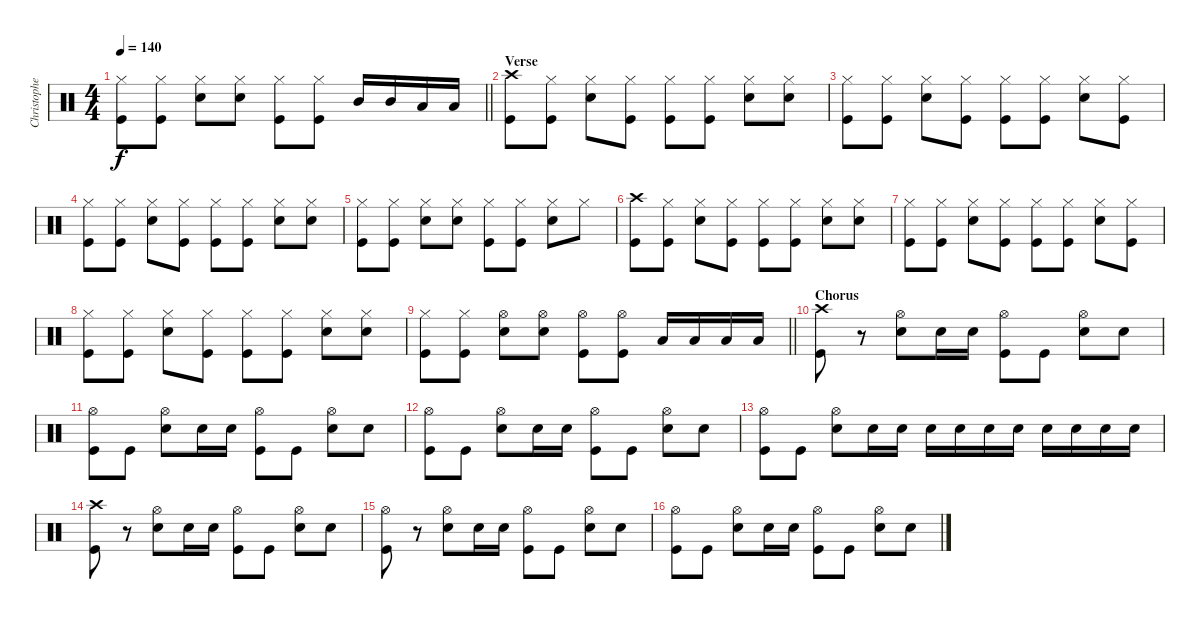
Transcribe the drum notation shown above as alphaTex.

\track ("Christopher - Drums" "Christophe") {instrument percussion}
\staff {score}
\articulation defaults
\ts (4 4)
\tempo 140
\clef neutral
\barLineRight lightlight
\ks c
("Hi-Hat (closed)" "Kick (hit)").8{dy f} ("Hi-Hat (closed)" "Kick (hit)").8 ("Hi-Hat (closed)" "Snare (hit) 2").8 ("Hi-Hat (closed)" "Snare (hit) 2").8 ("Hi-Hat (closed)" "Kick (hit)").8 ("Hi-Hat (closed)" "Kick (hit)").8 "Mid Tom (hit)".16 "Mid Tom (hit)".16 "Low Tom (hit)".16 "Low Tom (hit)".16 |
\section ("" "Verse")
("Crash high (hit)" "Kick (hit)").8 ("Hi-Hat (closed)" "Kick (hit)").8 ("Hi-Hat (closed)" "Snare (hit) 2").8 ("Hi-Hat (closed)" "Kick (hit)").8 ("Hi-Hat (closed)" "Kick (hit)").8 ("Hi-Hat (closed)" "Kick (hit)").8 ("Hi-Hat (closed)" "Snare (hit) 2").8 ("Hi-Hat (closed)" "Snare (hit) 2").8 |
("Hi-Hat (closed)" "Kick (hit)").8 ("Hi-Hat (closed)" "Kick (hit)").8 ("Hi-Hat (closed)" "Snare (hit) 2").8 ("Hi-Hat (closed)" "Kick (hit)").8 ("Hi-Hat (closed)" "Kick (hit)").8 ("Hi-Hat (closed)" "Kick (hit)").8 ("Hi-Hat (closed)" "Snare (hit) 2").8 ("Hi-Hat (closed)" "Kick (hit)").8 |
("Hi-Hat (closed)" "Kick (hit)").8 ("Hi-Hat (closed)" "Kick (hit)").8 ("Hi-Hat (closed)" "Snare (hit) 2").8 ("Hi-Hat (closed)" "Kick (hit)").8 ("Hi-Hat (closed)" "Kick (hit)").8 ("Hi-Hat (closed)" "Kick (hit)").8 ("Hi-Hat (closed)" "Snare (hit) 2").8 ("Hi-Hat (closed)" "Snare (hit) 2").8 |
("Hi-Hat (closed)" "Kick (hit)").8 ("Hi-Hat (closed)" "Kick (hit)").8 ("Hi-Hat (closed)" "Snare (hit) 2").8 ("Hi-Hat (closed)" "Snare (hit) 2").8 ("Hi-Hat (closed)" "Kick (hit)").8 ("Hi-Hat (closed)" "Kick (hit)").8 ("Hi-Hat (closed)" "Snare (hit) 2").8 "Hi-Hat (closed)".8 |
("Crash high (hit)" "Kick (hit)").8 ("Hi-Hat (closed)" "Kick (hit)").8 ("Hi-Hat (closed)" "Snare (hit) 2").8 ("Hi-Hat (closed)" "Kick (hit)").8 ("Hi-Hat (closed)" "Kick (hit)").8 ("Hi-Hat (closed)" "Kick (hit)").8 ("Hi-Hat (closed)" "Snare (hit) 2").8 ("Hi-Hat (closed)" "Snare (hit) 2").8 |
("Hi-Hat (closed)" "Kick (hit)").8 ("Hi-Hat (closed)" "Kick (hit)").8 ("Hi-Hat (closed)" "Snare (hit) 2").8 ("Hi-Hat (closed)" "Kick (hit)").8 ("Hi-Hat (closed)" "Kick (hit)").8 ("Hi-Hat (closed)" "Kick (hit)").8 ("Hi-Hat (closed)" "Snare (hit) 2").8 ("Hi-Hat (closed)" "Kick (hit)").8 |
("Hi-Hat (closed)" "Kick (hit)").8 ("Hi-Hat (closed)" "Kick (hit)").8 ("Hi-Hat (closed)" "Snare (hit) 2").8 ("Hi-Hat (closed)" "Kick (hit)").8 ("Hi-Hat (closed)" "Kick (hit)").8 ("Hi-Hat (closed)" "Kick (hit)").8 ("Hi-Hat (closed)" "Snare (hit) 2").8 ("Hi-Hat (closed)" "Snare (hit) 2").8 |
\barLineRight lightlight
("Hi-Hat (closed)" "Kick (hit)").8 ("Hi-Hat (closed)" "Kick (hit)").8 ("Hi-Hat (open)" "Snare (hit) 2").8 ("Hi-Hat (open)" "Snare (hit) 2").8 ("Hi-Hat (open)" "Kick (hit)").8 ("Hi-Hat (open)" "Kick (hit)").8 "Low Floor Tom (hit)".16 "Low Floor Tom (hit)".16 "Low Floor Tom (hit)".16 "Low Floor Tom (hit)".16 |
\section ("" "Chorus")
("Crash high (hit)" "Kick (hit)").8 r.8 ("Hi-Hat (open)" "Snare (hit) 2").8 "Snare (hit) 2".16 "Snare (hit) 2".16 ("Hi-Hat (open)" "Kick (hit)").8 "Kick (hit)".8 ("Hi-Hat (open)" "Snare (hit) 2").8 "Snare (hit) 2".8 |
("Hi-Hat (open)" "Kick (hit)").8 "Kick (hit)".8 ("Hi-Hat (open)" "Snare (hit) 2").8 "Snare (hit) 2".16 "Snare (hit) 2".16 ("Hi-Hat (open)" "Kick (hit)").8 "Kick (hit)".8 ("Hi-Hat (open)" "Snare (hit) 2").8 "Snare (hit) 2".8 |
("Hi-Hat (open)" "Kick (hit)").8 "Kick (hit)".8 ("Hi-Hat (open)" "Snare (hit) 2").8 "Snare (hit) 2".16 "Snare (hit) 2".16 ("Hi-Hat (open)" "Kick (hit)").8 "Kick (hit)".8 ("Hi-Hat (open)" "Snare (hit) 2").8 "Snare (hit) 2".8 |
("Hi-Hat (open)" "Kick (hit)").8 "Kick (hit)".8 ("Hi-Hat (open)" "Snare (hit) 2").8 "Snare (hit) 2".16 "Snare (hit) 2".16 "Snare (hit) 2".16 "Snare (hit) 2".16 "Snare (hit) 2".16 "Snare (hit) 2".16 "Snare (hit) 2".16 "Snare (hit) 2".16 "Snare (hit) 2".16 "Snare (hit) 2".16 |
("Crash high (hit)" "Kick (hit)").8 r.8 ("Hi-Hat (open)" "Snare (hit) 2").8 "Snare (hit) 2".16 "Snare (hit) 2".16 ("Hi-Hat (open)" "Kick (hit)").8 "Kick (hit)".8 ("Hi-Hat (open)" "Snare (hit) 2").8 "Snare (hit) 2".8 |
("Hi-Hat (open)" "Kick (hit)").8 r.8 ("Hi-Hat (open)" "Snare (hit) 2").8 "Snare (hit) 2".16 "Snare (hit) 2".16 ("Hi-Hat (open)" "Kick (hit)").8 "Kick (hit)".8 ("Hi-Hat (open)" "Snare (hit) 2").8 "Snare (hit) 2".8 |
("Hi-Hat (open)" "Kick (hit)").8 "Kick (hit)".8 ("Hi-Hat (open)" "Snare (hit) 2").8 "Snare (hit) 2".16 "Snare (hit) 2".16 ("Hi-Hat (open)" "Kick (hit)").8 "Kick (hit)".8 ("Hi-Hat (open)" "Snare (hit) 2").8 "Snare (hit) 2".8
